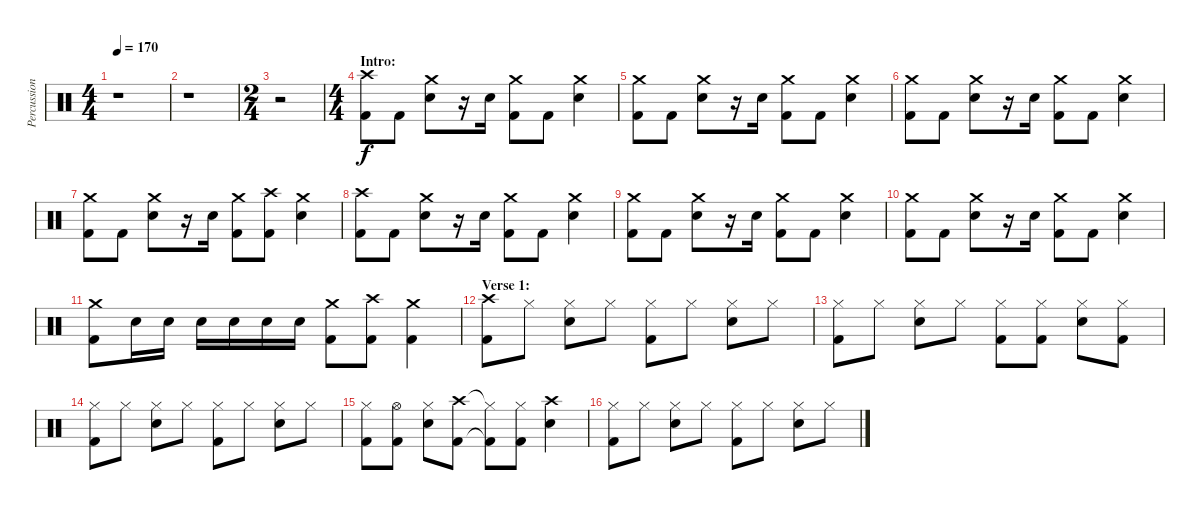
\track ("Percussion" "Percussion") {instrument percussion}
\staff {score}
\articulation defaults
\ts (4 4)
\tempo 170
\clef neutral
\ks c
r.1{dy f} |
r.1 |
\ts (2 4)
r.2 |
\ts (4 4)
\section ("" "Intro:")
("Crash high (hit)" "Kick (hit) 2").8 "Kick (hit) 2".8 ("Crash medium (hit)" "Snare (hit) 2").8 r.16 "Snare (hit) 2".16 ("Crash medium (hit)" "Kick (hit) 2").8 "Kick (hit) 2".8 ("Crash medium (hit)" "Snare (hit) 2").4 |
("Crash medium (hit)" "Kick (hit) 2").8 "Kick (hit) 2".8 ("Crash medium (hit)" "Snare (hit) 2").8 r.16 "Snare (hit) 2".16 ("Crash medium (hit)" "Kick (hit) 2").8 "Kick (hit) 2".8 ("Crash medium (hit)" "Snare (hit) 2").4 |
("Crash medium (hit)" "Kick (hit) 2").8 "Kick (hit) 2".8 ("Crash medium (hit)" "Snare (hit) 2").8 r.16 "Snare (hit) 2".16 ("Crash medium (hit)" "Kick (hit) 2").8 "Kick (hit) 2".8 ("Crash medium (hit)" "Snare (hit) 2").4 |
("Crash medium (hit)" "Kick (hit) 2").8 "Kick (hit) 2".8 ("Crash medium (hit)" "Snare (hit) 2").8 r.16 "Snare (hit) 2".16 ("Crash medium (hit)" "Kick (hit) 2").8 ("Crash high (hit)" "Kick (hit) 2").8 ("Crash medium (hit)" "Snare (hit) 2").4 |
("Crash high (hit)" "Kick (hit) 2").8 "Kick (hit) 2".8 ("Crash medium (hit)" "Snare (hit) 2").8 r.16 "Snare (hit) 2".16 ("Crash medium (hit)" "Kick (hit) 2").8 "Kick (hit) 2".8 ("Crash medium (hit)" "Snare (hit) 2").4 |
("Crash medium (hit)" "Kick (hit) 2").8 "Kick (hit) 2".8 ("Crash medium (hit)" "Snare (hit) 2").8 r.16 "Snare (hit) 2".16 ("Crash medium (hit)" "Kick (hit) 2").8 "Kick (hit) 2".8 ("Crash medium (hit)" "Snare (hit) 2").4 |
("Crash medium (hit)" "Kick (hit) 2").8 "Kick (hit) 2".8 ("Crash medium (hit)" "Snare (hit) 2").8 r.16 "Snare (hit) 2".16 ("Crash medium (hit)" "Kick (hit) 2").8 "Kick (hit) 2".8 ("Crash medium (hit)" "Snare (hit) 2").4 |
("Crash medium (hit)" "Kick (hit) 2").8 "Snare (hit) 2".16 "Snare (hit) 2".16 "Snare (hit) 2".16 "Snare (hit) 2".16 "Snare (hit) 2".16 "Snare (hit) 2".16 ("Crash medium (hit)" "Kick (hit) 2").8 ("Crash high (hit)" "Kick (hit) 2").8 ("Crash medium (hit)" "Kick (hit) 2").4 |
\section ("" "Verse 1:")
("Crash high (hit)" "Kick (hit) 2").8 "Hi-Hat (closed)".8 ("Hi-Hat (closed)" "Snare (hit) 2").8 "Hi-Hat (closed)".8 ("Hi-Hat (closed)" "Kick (hit) 2").8 "Hi-Hat (closed)".8 ("Hi-Hat (closed)" "Snare (hit) 2").8 "Hi-Hat (closed)".8 |
("Hi-Hat (closed)" "Kick (hit) 2").8 "Hi-Hat (closed)".8 ("Hi-Hat (closed)" "Snare (hit) 2").8 "Hi-Hat (closed)".8 ("Hi-Hat (closed)" "Kick (hit) 2").8 ("Hi-Hat (closed)" "Kick (hit) 2").8 ("Hi-Hat (closed)" "Snare (hit) 2").8 ("Hi-Hat (closed)" "Kick (hit) 2").8 |
("Hi-Hat (closed)" "Kick (hit) 2").8 "Hi-Hat (closed)".8 ("Hi-Hat (closed)" "Snare (hit) 2").8 "Hi-Hat (closed)".8 ("Hi-Hat (closed)" "Kick (hit) 2").8 "Hi-Hat (closed)".8 ("Hi-Hat (closed)" "Snare (hit) 2").8 "Hi-Hat (closed)".8 |
("Hi-Hat (closed)" "Kick (hit) 2").8 ("Hi-Hat (open)" "Kick (hit) 2").8 ("Hi-Hat (closed)" "Snare (hit) 2").8 ("Crash high (hit)" "Kick (hit) 2").8 ("Hi-Hat (closed)"{t} "Kick (hit) 2"{t}).8 ("Hi-Hat (closed)" "Kick (hit) 2").8 ("Crash high (hit)" "Snare (hit) 2").4 |
("Hi-Hat (closed)" "Kick (hit) 2").8 "Hi-Hat (closed)".8 ("Hi-Hat (closed)" "Snare (hit) 2").8 "Hi-Hat (closed)".8 ("Hi-Hat (closed)" "Kick (hit) 2").8 "Hi-Hat (closed)".8 ("Hi-Hat (closed)" "Snare (hit) 2").8 "Hi-Hat (closed)".8
